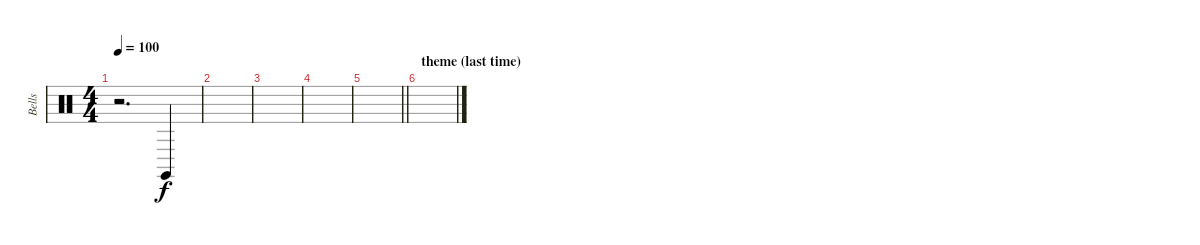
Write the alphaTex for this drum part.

\track ("Bells" "Bells") {instrument percussion}
\staff {score}
\articulation defaults
\ts (4 4)
\tempo 100
\clef neutral
\ks c
r.2{d dy f} "Claves (hit)".4 |
|
|
|
\barLineRight lightlight
|
\section ("" "theme (last time)")
